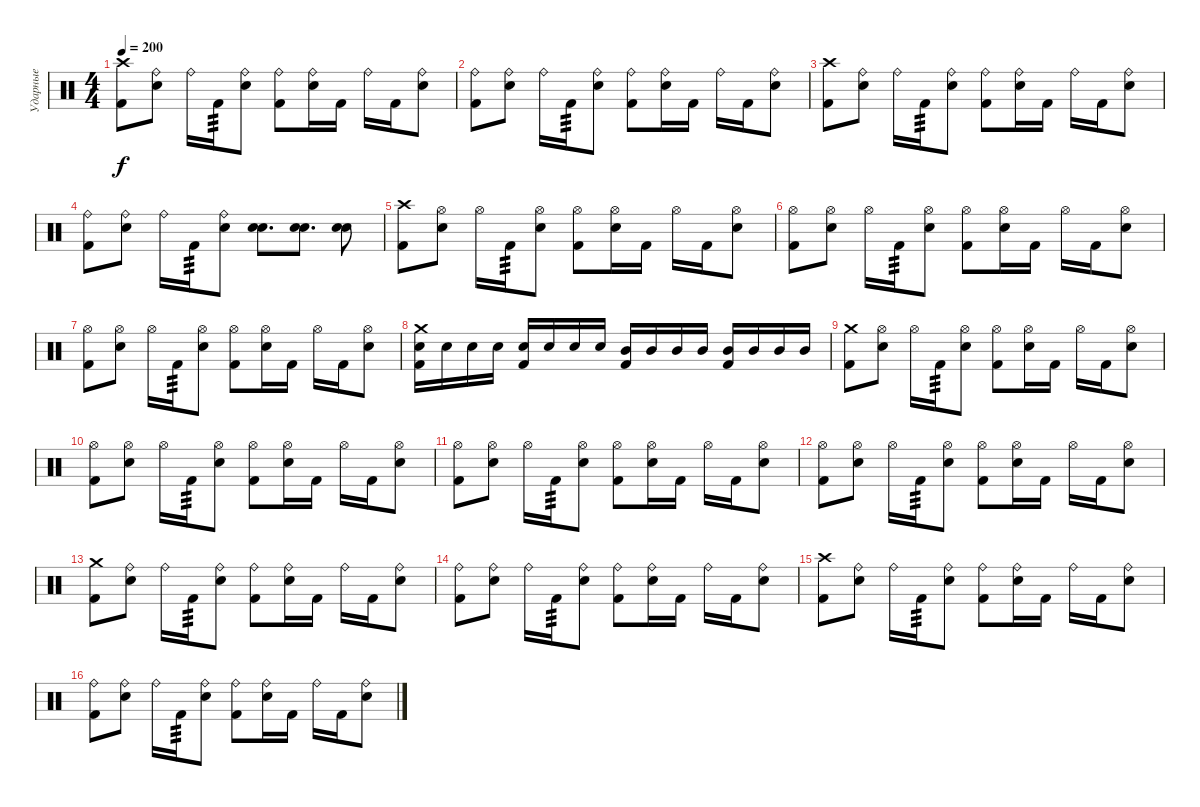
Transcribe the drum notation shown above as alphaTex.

\track ("Ударные" "Ударные") {instrument percussion}
\staff {score}
\articulation defaults
\ts (4 4)
\tempo 200
\clef neutral
\ks c
("Kick (hit) 2" "Crash high (hit)").8{dy f} ("Electric Snare (hit)" "Ride (bell)").8 "Ride (bell)".16 "Kick (hit) 2".16{tp 3} ("Electric Snare (hit)" "Ride (bell)").8 ("Kick (hit) 2" "Ride (bell)").8 ("Electric Snare (hit)" "Ride (bell)").16 "Kick (hit) 2".16 "Ride (bell)".16 "Kick (hit) 2".16 ("Electric Snare (hit)" "Ride (bell)").8 |
("Kick (hit) 2" "Ride (bell)").8 ("Electric Snare (hit)" "Ride (bell)").8 "Ride (bell)".16 "Kick (hit) 2".16{tp 3} ("Electric Snare (hit)" "Ride (bell)").8 ("Kick (hit) 2" "Ride (bell)").8 ("Electric Snare (hit)" "Ride (bell)").16 "Kick (hit) 2".16 "Ride (bell)".16 "Kick (hit) 2".16 ("Electric Snare (hit)" "Ride (bell)").8 |
("Kick (hit) 2" "Crash high (hit)").8 ("Electric Snare (hit)" "Ride (bell)").8 "Ride (bell)".16 "Kick (hit) 2".16{tp 3} ("Electric Snare (hit)" "Ride (bell)").8 ("Kick (hit) 2" "Ride (bell)").8 ("Electric Snare (hit)" "Ride (bell)").16 "Kick (hit) 2".16 "Ride (bell)".16 "Kick (hit) 2".16 ("Electric Snare (hit)" "Ride (bell)").8 |
("Kick (hit) 2" "Ride (bell)").8 ("Electric Snare (hit)" "Ride (bell)").8 "Ride (bell)".16 "Kick (hit) 2".16{tp 3} ("Electric Snare (hit)" "Ride (bell)").8 ("Electric Snare (hit)" "Electric Snare (hit)").8{d} ("Electric Snare (hit)" "Electric Snare (hit)").8{d} ("Electric Snare (hit)" "Electric Snare (hit)").8 |
("Kick (hit) 2" "Crash high (hit)").8 ("Electric Snare (hit)" "Hi-Hat (open)").8 "Hi-Hat (open)".16 "Kick (hit) 2".16{tp 3} ("Electric Snare (hit)" "Hi-Hat (open)").8 ("Kick (hit) 2" "Hi-Hat (open)").8 ("Electric Snare (hit)" "Hi-Hat (open)").16 "Kick (hit) 2".16 "Hi-Hat (open)".16 "Kick (hit) 2".16 ("Electric Snare (hit)" "Hi-Hat (open)").8 |
("Kick (hit) 2" "Hi-Hat (open)").8 ("Electric Snare (hit)" "Hi-Hat (open)").8 "Hi-Hat (open)".16 "Kick (hit) 2".16{tp 3} ("Electric Snare (hit)" "Hi-Hat (open)").8 ("Kick (hit) 2" "Hi-Hat (open)").8 ("Electric Snare (hit)" "Hi-Hat (open)").16 "Kick (hit) 2".16 "Hi-Hat (open)".16 "Kick (hit) 2".16 ("Electric Snare (hit)" "Hi-Hat (open)").8 |
("Kick (hit) 2" "Hi-Hat (open)").8 ("Electric Snare (hit)" "Hi-Hat (open)").8 "Hi-Hat (open)".16 "Kick (hit) 2".16{tp 3} ("Electric Snare (hit)" "Hi-Hat (open)").8 ("Kick (hit) 2" "Hi-Hat (open)").8 ("Electric Snare (hit)" "Hi-Hat (open)").16 "Kick (hit) 2".16 "Hi-Hat (open)".16 "Kick (hit) 2".16 ("Electric Snare (hit)" "Hi-Hat (open)").8 |
("Crash medium (hit)" "Kick (hit) 2" "Electric Snare (hit)").16 "Electric Snare (hit)".16 "Electric Snare (hit)".16 "Electric Snare (hit)".16 ("Kick (hit) 2" "Electric Snare (hit)").16 "Electric Snare (hit)".16 "Electric Snare (hit)".16 "Electric Snare (hit)".16 ("Kick (hit) 2" "Mid Tom (hit)").16 "Mid Tom (hit)".16 "Mid Tom (hit)".16 "Mid Tom (hit)".16 ("Kick (hit) 2" "Mid Tom (hit)").16 "Mid Tom (hit)".16 "Mid Tom (hit)".16 "Mid Tom (hit)".16 |
("Kick (hit) 2" "Crash medium (hit)").8 ("Electric Snare (hit)" "Hi-Hat (open)").8 "Hi-Hat (open)".16 "Kick (hit) 2".16{tp 3} ("Electric Snare (hit)" "Hi-Hat (open)").8 ("Kick (hit) 2" "Hi-Hat (open)").8 ("Electric Snare (hit)" "Hi-Hat (open)").16 "Kick (hit) 2".16 "Hi-Hat (open)".16 "Kick (hit) 2".16 ("Electric Snare (hit)" "Hi-Hat (open)").8 |
("Kick (hit) 2" "Hi-Hat (open)").8 ("Electric Snare (hit)" "Hi-Hat (open)").8 "Hi-Hat (open)".16 "Kick (hit) 2".16{tp 3} ("Electric Snare (hit)" "Hi-Hat (open)").8 ("Kick (hit) 2" "Hi-Hat (open)").8 ("Electric Snare (hit)" "Hi-Hat (open)").16 "Kick (hit) 2".16 "Hi-Hat (open)".16 "Kick (hit) 2".16 ("Electric Snare (hit)" "Hi-Hat (open)").8 |
("Kick (hit) 2" "Hi-Hat (open)").8 ("Electric Snare (hit)" "Hi-Hat (open)").8 "Hi-Hat (open)".16 "Kick (hit) 2".16{tp 3} ("Electric Snare (hit)" "Hi-Hat (open)").8 ("Kick (hit) 2" "Hi-Hat (open)").8 ("Electric Snare (hit)" "Hi-Hat (open)").16 "Kick (hit) 2".16 "Hi-Hat (open)".16 "Kick (hit) 2".16 ("Electric Snare (hit)" "Hi-Hat (open)").8 |
("Kick (hit) 2" "Hi-Hat (open)").8 ("Electric Snare (hit)" "Hi-Hat (open)").8 "Hi-Hat (open)".16 "Kick (hit) 2".16{tp 3} ("Electric Snare (hit)" "Hi-Hat (open)").8 ("Kick (hit) 2" "Hi-Hat (open)").8 ("Electric Snare (hit)" "Hi-Hat (open)").16 "Kick (hit) 2".16 "Hi-Hat (open)".16 "Kick (hit) 2".16 ("Electric Snare (hit)" "Hi-Hat (open)").8 |
("Kick (hit) 2" "Crash medium (hit)").8 ("Electric Snare (hit)" "Ride (bell)").8 "Ride (bell)".16 "Kick (hit) 2".16{tp 3} ("Electric Snare (hit)" "Ride (bell)").8 ("Kick (hit) 2" "Ride (bell)").8 ("Electric Snare (hit)" "Ride (bell)").16 "Kick (hit) 2".16 "Ride (bell)".16 "Kick (hit) 2".16 ("Electric Snare (hit)" "Ride (bell)").8 |
("Kick (hit) 2" "Ride (bell)").8 ("Electric Snare (hit)" "Ride (bell)").8 "Ride (bell)".16 "Kick (hit) 2".16{tp 3} ("Electric Snare (hit)" "Ride (bell)").8 ("Kick (hit) 2" "Ride (bell)").8 ("Electric Snare (hit)" "Ride (bell)").16 "Kick (hit) 2".16 "Ride (bell)".16 "Kick (hit) 2".16 ("Electric Snare (hit)" "Ride (bell)").8 |
("Kick (hit) 2" "Crash high (hit)").8 ("Electric Snare (hit)" "Ride (bell)").8 "Ride (bell)".16 "Kick (hit) 2".16{tp 3} ("Electric Snare (hit)" "Ride (bell)").8 ("Kick (hit) 2" "Ride (bell)").8 ("Electric Snare (hit)" "Ride (bell)").16 "Kick (hit) 2".16 "Ride (bell)".16 "Kick (hit) 2".16 ("Electric Snare (hit)" "Ride (bell)").8 |
("Kick (hit) 2" "Ride (bell)").8 ("Electric Snare (hit)" "Ride (bell)").8 "Ride (bell)".16 "Kick (hit) 2".16{tp 3} ("Electric Snare (hit)" "Ride (bell)").8 ("Kick (hit) 2" "Ride (bell)").8 ("Electric Snare (hit)" "Ride (bell)").16 "Kick (hit) 2".16 "Ride (bell)".16 "Kick (hit) 2".16 ("Electric Snare (hit)" "Ride (bell)").8
